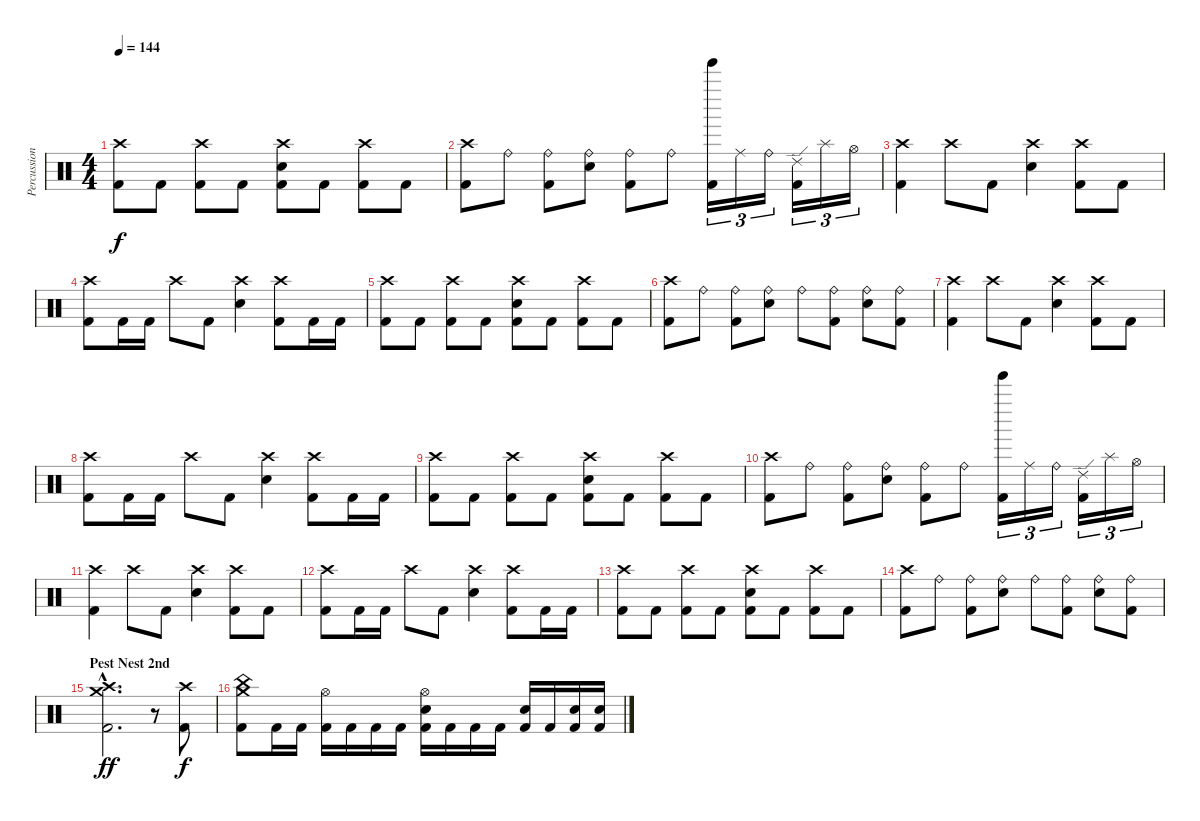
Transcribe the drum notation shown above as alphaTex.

\track ("Percussion" "Percussion") {instrument percussion}
\staff {score}
\articulation defaults
\ts (4 4)
\tempo 144
\clef neutral
\ks c
("Crash high (hit)" "Kick (hit) 2").8{dy f} "Kick (hit) 2".8 ("Crash high (hit)" "Kick (hit) 2").8 "Kick (hit) 2".8 ("Crash high (hit)" "Electric Snare (hit)" "Kick (hit) 2").8 "Kick (hit) 2".8 ("Crash high (hit)" "Kick (hit) 2").8 "Kick (hit) 2".8 |
("Crash high (hit)" "Kick (hit) 2").8 "Ride (bell)".8 ("Ride (bell)" "Kick (hit) 2").8 ("Ride (bell)" "Electric Snare (hit)").8 ("Ride (bell)" "Kick (hit) 2").8 "Ride (bell)".8 ("Tinkle Bell (hit)" "Kick (hit) 2").16{tu (3 2)} "Ride (middle)".16{tu (3 2)} "Ride (bell)".16{tu (3 2)} ("Ride (edge) 2" "Kick (hit) 2").16{tu (3 2)} "Splash (hit)".16{tu (3 2)} "Hi-Hat (open)".16{tu (3 2)} |
("Crash high (hit)" "Kick (hit) 2").4 "Crash high (hit)".8 "Kick (hit) 2".8 ("Crash high (hit)" "Electric Snare (hit)").4 ("Crash high (hit)" "Kick (hit) 2").8 "Kick (hit) 2".8 |
("Crash high (hit)" "Kick (hit) 2").8 "Kick (hit) 2".16 "Kick (hit) 2".16 "Crash high (hit)".8 "Kick (hit) 2".8 ("Crash high (hit)" "Electric Snare (hit)").4 ("Crash high (hit)" "Kick (hit) 2").8 "Kick (hit) 2".16 "Kick (hit) 2".16 |
("Crash high (hit)" "Kick (hit) 2").8 "Kick (hit) 2".8 ("Crash high (hit)" "Kick (hit) 2").8 "Kick (hit) 2".8 ("Crash high (hit)" "Electric Snare (hit)" "Kick (hit) 2").8 "Kick (hit) 2".8 ("Crash high (hit)" "Kick (hit) 2").8 "Kick (hit) 2".8 |
("Crash high (hit)" "Kick (hit) 2").8 "Ride (bell)".8 ("Ride (bell)" "Kick (hit) 2").8 ("Ride (bell)" "Electric Snare (hit)").8 "Ride (bell)".8 ("Ride (bell)" "Kick (hit) 2").8 ("Ride (bell)" "Electric Snare (hit)").8 ("Ride (bell)" "Kick (hit) 2").8 |
("Crash high (hit)" "Kick (hit) 2").4 "Crash high (hit)".8 "Kick (hit) 2".8 ("Crash high (hit)" "Electric Snare (hit)").4 ("Crash high (hit)" "Kick (hit) 2").8 "Kick (hit) 2".8 |
("Crash high (hit)" "Kick (hit) 2").8 "Kick (hit) 2".16 "Kick (hit) 2".16 "Crash high (hit)".8 "Kick (hit) 2".8 ("Crash high (hit)" "Electric Snare (hit)").4 ("Crash high (hit)" "Kick (hit) 2").8 "Kick (hit) 2".16 "Kick (hit) 2".16 |
("Crash high (hit)" "Kick (hit) 2").8 "Kick (hit) 2".8 ("Crash high (hit)" "Kick (hit) 2").8 "Kick (hit) 2".8 ("Crash high (hit)" "Electric Snare (hit)" "Kick (hit) 2").8 "Kick (hit) 2".8 ("Crash high (hit)" "Kick (hit) 2").8 "Kick (hit) 2".8 |
("Crash high (hit)" "Kick (hit) 2").8 "Ride (bell)".8 ("Ride (bell)" "Kick (hit) 2").8 ("Ride (bell)" "Electric Snare (hit)").8 ("Ride (bell)" "Kick (hit) 2").8 "Ride (bell)".8 ("Tinkle Bell (hit)" "Kick (hit) 2").16{tu (3 2)} "Ride (middle)".16{tu (3 2)} "Ride (bell)".16{tu (3 2)} ("Ride (edge) 2" "Kick (hit) 2").16{tu (3 2)} "Splash (hit)".16{tu (3 2)} "Hi-Hat (open)".16{tu (3 2)} |
("Crash high (hit)" "Kick (hit) 2").4 "Crash high (hit)".8 "Kick (hit) 2".8 ("Crash high (hit)" "Electric Snare (hit)").4 ("Crash high (hit)" "Kick (hit) 2").8 "Kick (hit) 2".8 |
("Crash high (hit)" "Kick (hit) 2").8 "Kick (hit) 2".16 "Kick (hit) 2".16 "Crash high (hit)".8 "Kick (hit) 2".8 ("Crash high (hit)" "Electric Snare (hit)").4 ("Crash high (hit)" "Kick (hit) 2").8 "Kick (hit) 2".16 "Kick (hit) 2".16 |
("Crash high (hit)" "Kick (hit) 2").8 "Kick (hit) 2".8 ("Crash high (hit)" "Kick (hit) 2").8 "Kick (hit) 2".8 ("Crash high (hit)" "Electric Snare (hit)" "Kick (hit) 2").8 "Kick (hit) 2".8 ("Crash high (hit)" "Kick (hit) 2").8 "Kick (hit) 2".8 |
("Crash high (hit)" "Kick (hit) 2").8 "Ride (bell)".8 ("Ride (bell)" "Kick (hit) 2").8 ("Ride (bell)" "Electric Snare (hit)").8 "Ride (bell)".8 ("Ride (bell)" "Kick (hit) 2").8 ("Ride (bell)" "Electric Snare (hit)").8 ("Ride (bell)" "Kick (hit) 2").8 |
\section ("" "Pest Nest 2nd")
("Crash high (hit)"{hac} "Crash medium (hit)"{hac} "Kick (hit) 2"{hac}).2{d dy ff} r.8 ("Crash high (hit)" "Kick (hit) 2").8{dy f} |
("Crash medium (hit)" "China (hit)" "Kick (hit) 2").8 "Kick (hit) 2".16 "Kick (hit) 2".16 ("Hi-Hat (open)" "Kick (hit) 2").16 "Kick (hit) 2".16 "Kick (hit) 2".16 "Kick (hit) 2".16 ("Hi-Hat (open)" "Electric Snare (hit)" "Kick (hit) 2").16 "Kick (hit) 2".16 "Kick (hit) 2".16 "Kick (hit) 2".16 ("Electric Snare (hit)" "Kick (hit) 2").16 "Kick (hit) 2".16 ("Electric Snare (hit)" "Kick (hit) 2").16 ("Electric Snare (hit)" "Kick (hit) 2").16
